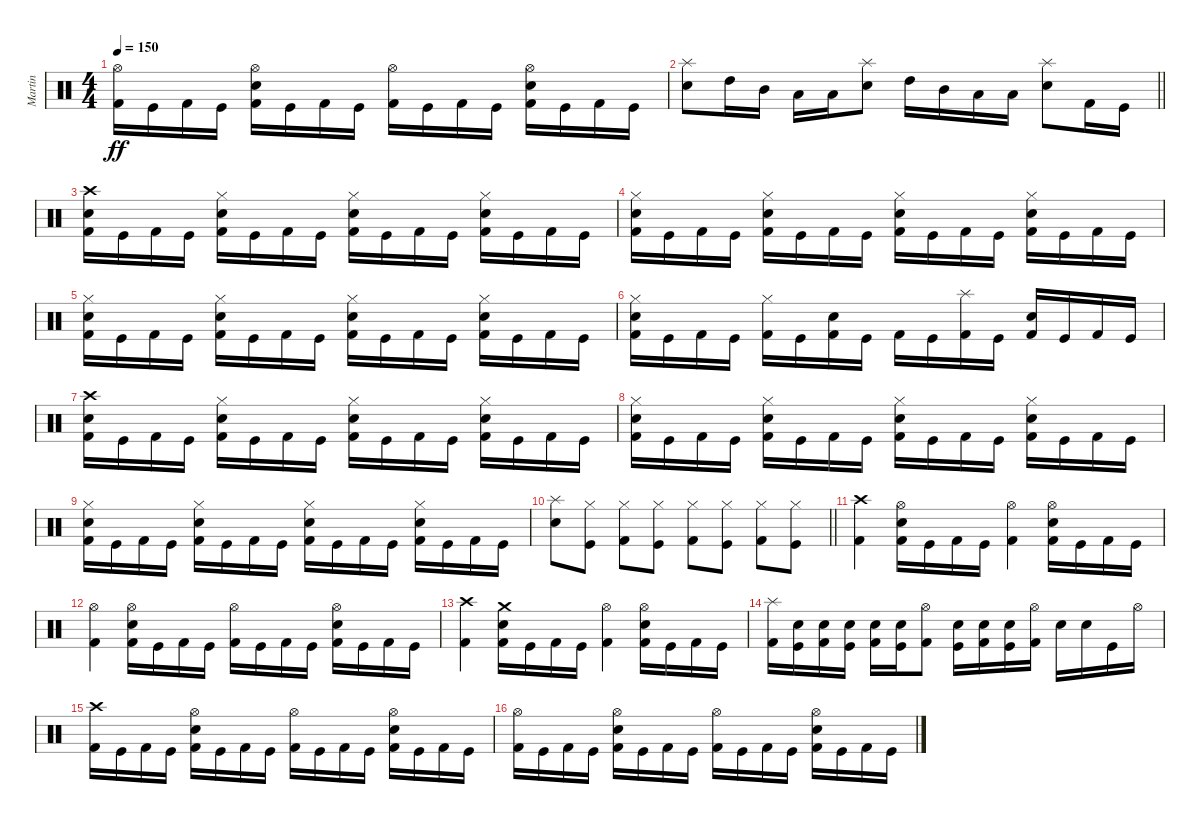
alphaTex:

\track ("Martin" "Martin") {instrument percussion}
\staff {score}
\articulation defaults
\ts (4 4)
\tempo 150
\clef neutral
\ks c
("Hi-Hat (open)" "Kick (hit) 2").16{dy ff} "Kick (hit)".16 "Kick (hit) 2".16 "Kick (hit)".16 ("Hi-Hat (open)" "Electric Snare (hit)" "Kick (hit) 2").16 "Kick (hit)".16 "Kick (hit) 2".16 "Kick (hit)".16 ("Hi-Hat (open)" "Kick (hit) 2").16 "Kick (hit)".16 "Kick (hit) 2".16 "Kick (hit)".16 ("Hi-Hat (open)" "Electric Snare (hit)" "Kick (hit) 2").16 "Kick (hit)".16 "Kick (hit) 2".16 "Kick (hit)".16 |
\barLineRight lightlight
("Splash (hit)" "Electric Snare (hit)").8 "High Tom (hit)".16 "Mid Tom (hit)".16 "Low Tom (hit)".16 "Low Tom (hit)".16 ("Splash (hit)" "Electric Snare (hit)").8 "High Tom (hit)".16 "Mid Tom (hit)".16 "Low Tom (hit)".16 "Low Tom (hit)".16 ("Splash (hit)" "Electric Snare (hit)").8 "Kick (hit) 2".16 "Kick (hit)".16 |
\section ("" "")
("Crash high (hit)" "Electric Snare (hit)" "Kick (hit) 2").16 "Kick (hit)".16 "Kick (hit) 2".16 "Kick (hit)".16 ("Hi-Hat (closed)" "Electric Snare (hit)" "Kick (hit) 2").16 "Kick (hit)".16 "Kick (hit) 2".16 "Kick (hit)".16 ("Hi-Hat (closed)" "Electric Snare (hit)" "Kick (hit) 2").16 "Kick (hit)".16 "Kick (hit) 2".16 "Kick (hit)".16 ("Hi-Hat (closed)" "Electric Snare (hit)" "Kick (hit) 2").16 "Kick (hit)".16 "Kick (hit) 2".16 "Kick (hit)".16 |
("Hi-Hat (closed)" "Electric Snare (hit)" "Kick (hit) 2").16 "Kick (hit)".16 "Kick (hit) 2".16 "Kick (hit)".16 ("Hi-Hat (closed)" "Electric Snare (hit)" "Kick (hit) 2").16 "Kick (hit)".16 "Kick (hit) 2".16 "Kick (hit)".16 ("Hi-Hat (closed)" "Electric Snare (hit)" "Kick (hit) 2").16 "Kick (hit)".16 "Kick (hit) 2".16 "Kick (hit)".16 ("Hi-Hat (closed)" "Electric Snare (hit)" "Kick (hit) 2").16 "Kick (hit)".16 "Kick (hit) 2".16 "Kick (hit)".16 |
("Hi-Hat (closed)" "Electric Snare (hit)" "Kick (hit) 2").16 "Kick (hit)".16 "Kick (hit) 2".16 "Kick (hit)".16 ("Hi-Hat (closed)" "Electric Snare (hit)" "Kick (hit) 2").16 "Kick (hit)".16 "Kick (hit) 2".16 "Kick (hit)".16 ("Hi-Hat (closed)" "Electric Snare (hit)" "Kick (hit) 2").16 "Kick (hit)".16 "Kick (hit) 2".16 "Kick (hit)".16 ("Hi-Hat (closed)" "Electric Snare (hit)" "Kick (hit) 2").16 "Kick (hit)".16 "Kick (hit) 2".16 "Kick (hit)".16 |
("Hi-Hat (closed)" "Electric Snare (hit)" "Kick (hit) 2").16 "Kick (hit)".16 "Kick (hit) 2".16 "Kick (hit)".16 ("Hi-Hat (closed)" "Kick (hit) 2").16 "Kick (hit)".16 ("Electric Snare (hit)" "Kick (hit) 2").16 "Kick (hit)".16 "Kick (hit) 2".16 "Kick (hit)".16 ("Splash (hit)" "Kick (hit) 2").16 "Kick (hit)".16 ("Electric Snare (hit)" "Kick (hit) 2").16 "Kick (hit)".16 "Kick (hit) 2".16 "Kick (hit)".16 |
("Crash high (hit)" "Electric Snare (hit)" "Kick (hit) 2").16 "Kick (hit)".16 "Kick (hit) 2".16 "Kick (hit)".16 ("Hi-Hat (closed)" "Electric Snare (hit)" "Kick (hit) 2").16 "Kick (hit)".16 "Kick (hit) 2".16 "Kick (hit)".16 ("Hi-Hat (closed)" "Electric Snare (hit)" "Kick (hit) 2").16 "Kick (hit)".16 "Kick (hit) 2".16 "Kick (hit)".16 ("Hi-Hat (closed)" "Electric Snare (hit)" "Kick (hit) 2").16 "Kick (hit)".16 "Kick (hit) 2".16 "Kick (hit)".16 |
("Hi-Hat (closed)" "Electric Snare (hit)" "Kick (hit) 2").16 "Kick (hit)".16 "Kick (hit) 2".16 "Kick (hit)".16 ("Hi-Hat (closed)" "Electric Snare (hit)" "Kick (hit) 2").16 "Kick (hit)".16 "Kick (hit) 2".16 "Kick (hit)".16 ("Hi-Hat (closed)" "Electric Snare (hit)" "Kick (hit) 2").16 "Kick (hit)".16 "Kick (hit) 2".16 "Kick (hit)".16 ("Hi-Hat (closed)" "Electric Snare (hit)" "Kick (hit) 2").16 "Kick (hit)".16 "Kick (hit) 2".16 "Kick (hit)".16 |
("Hi-Hat (closed)" "Electric Snare (hit)" "Kick (hit) 2").16 "Kick (hit)".16 "Kick (hit) 2".16 "Kick (hit)".16 ("Hi-Hat (closed)" "Electric Snare (hit)" "Kick (hit) 2").16 "Kick (hit)".16 "Kick (hit) 2".16 "Kick (hit)".16 ("Hi-Hat (closed)" "Electric Snare (hit)" "Kick (hit) 2").16 "Kick (hit)".16 "Kick (hit) 2".16 "Kick (hit)".16 ("Hi-Hat (closed)" "Electric Snare (hit)" "Kick (hit) 2").16 "Kick (hit)".16 "Kick (hit) 2".16 "Kick (hit)".16 |
\barLineRight lightlight
("Splash (hit)" "Electric Snare (hit)").8 ("Hi-Hat (closed)" "Kick (hit)").8 ("Hi-Hat (closed)" "Kick (hit) 2").8 ("Hi-Hat (closed)" "Kick (hit)").8 ("Hi-Hat (closed)" "Kick (hit) 2").8 ("Hi-Hat (closed)" "Kick (hit)").8 ("Hi-Hat (closed)" "Kick (hit) 2").8 ("Hi-Hat (closed)" "Kick (hit)").8 |
\section ("" "")
("Crash high (hit)" "Kick (hit) 2").4 ("Hi-Hat (open)" "Electric Snare (hit)" "Kick (hit) 2").16 "Kick (hit)".16 "Kick (hit) 2".16 "Kick (hit)".16 ("Hi-Hat (open)" "Kick (hit) 2").4 ("Hi-Hat (open)" "Electric Snare (hit)" "Kick (hit) 2").16 "Kick (hit)".16 "Kick (hit) 2".16 "Kick (hit)".16 |
("Hi-Hat (open)" "Kick (hit) 2").4 ("Hi-Hat (open)" "Electric Snare (hit)" "Kick (hit) 2").16 "Kick (hit)".16 "Kick (hit) 2".16 "Kick (hit)".16 ("Hi-Hat (open)" "Kick (hit) 2").16 "Kick (hit)".16 "Kick (hit) 2".16 "Kick (hit)".16 ("Hi-Hat (open)" "Electric Snare (hit)" "Kick (hit) 2").16 "Kick (hit)".16 "Kick (hit) 2".16 "Kick (hit)".16 |
("Crash high (hit)" "Kick (hit) 2").4 ("Crash medium (hit)" "Electric Snare (hit)" "Kick (hit) 2").16 "Kick (hit)".16 "Kick (hit) 2".16 "Kick (hit)".16 ("Hi-Hat (open)" "Kick (hit) 2").4 ("Hi-Hat (open)" "Electric Snare (hit)" "Kick (hit) 2").16 "Kick (hit)".16 "Kick (hit) 2".16 "Kick (hit)".16 |
("Splash (hit)" "Kick (hit) 2").16 ("Electric Snare (hit)" "Kick (hit)").16 ("Electric Snare (hit)" "Kick (hit) 2").16 ("Electric Snare (hit)" "Kick (hit)").16 ("Electric Snare (hit)" "Kick (hit) 2").16 ("Electric Snare (hit)" "Kick (hit)").16 ("Hi-Hat (open)" "Kick (hit) 2").8 ("Electric Snare (hit)" "Kick (hit)").16 ("Electric Snare (hit)" "Kick (hit) 2").16 ("Electric Snare (hit)" "Kick (hit)").16 ("Hi-Hat (open)" "Kick (hit) 2").16 "Electric Snare (hit)".16 "Electric Snare (hit)".16 "Kick (hit)".16 "Hi-Hat (open)".16 |
("Crash high (hit)" "Kick (hit) 2").16 "Kick (hit)".16 "Kick (hit) 2".16 "Kick (hit)".16 ("Hi-Hat (open)" "Electric Snare (hit)" "Kick (hit) 2").16 "Kick (hit)".16 "Kick (hit) 2".16 "Kick (hit)".16 ("Hi-Hat (open)" "Kick (hit) 2").16 "Kick (hit)".16 "Kick (hit) 2".16 "Kick (hit)".16 ("Hi-Hat (open)" "Electric Snare (hit)" "Kick (hit) 2").16 "Kick (hit)".16 "Kick (hit) 2".16 "Kick (hit)".16 |
("Hi-Hat (open)" "Kick (hit) 2").16 "Kick (hit)".16 "Kick (hit) 2".16 "Kick (hit)".16 ("Hi-Hat (open)" "Electric Snare (hit)" "Kick (hit) 2").16 "Kick (hit)".16 "Kick (hit) 2".16 "Kick (hit)".16 ("Hi-Hat (open)" "Kick (hit) 2").16 "Kick (hit)".16 "Kick (hit) 2".16 "Kick (hit)".16 ("Hi-Hat (open)" "Electric Snare (hit)" "Kick (hit) 2").16 "Kick (hit)".16 "Kick (hit) 2".16 "Kick (hit)".16
